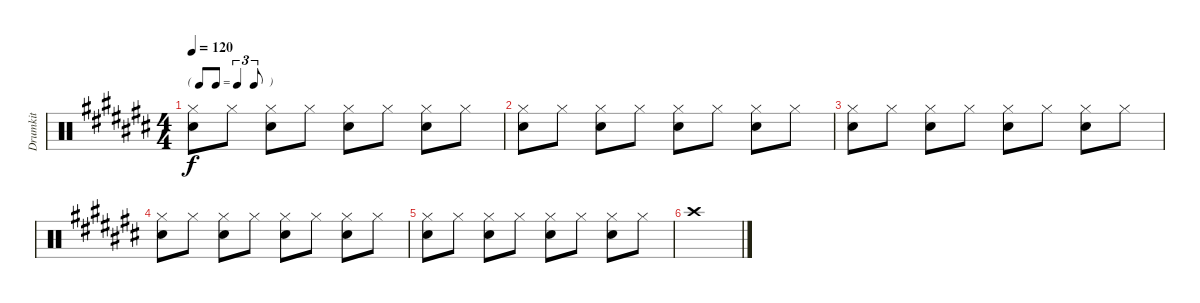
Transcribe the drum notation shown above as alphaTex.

\track ("Drumkit" "Drumkit") {instrument percussion}
\staff {score}
\articulation defaults
\ts (4 4)
\tf triplet8th
\tempo 120
\clef neutral
\ks c#
("Snare (hit) 2" "Hi-Hat (closed)").8{dy f} "Hi-Hat (closed)".8 ("Snare (hit) 2" "Hi-Hat (closed)").8 "Hi-Hat (closed)".8 ("Snare (hit) 2" "Hi-Hat (closed)").8 "Hi-Hat (closed)".8 ("Snare (hit) 2" "Hi-Hat (closed)").8 "Hi-Hat (closed)".8 |
("Snare (hit) 2" "Hi-Hat (closed)").8 "Hi-Hat (closed)".8 ("Snare (hit) 2" "Hi-Hat (closed)").8 "Hi-Hat (closed)".8 ("Snare (hit) 2" "Hi-Hat (closed)").8 "Hi-Hat (closed)".8 ("Snare (hit) 2" "Hi-Hat (closed)").8 "Hi-Hat (closed)".8 |
("Snare (hit) 2" "Hi-Hat (closed)").8 "Hi-Hat (closed)".8 ("Snare (hit) 2" "Hi-Hat (closed)").8 "Hi-Hat (closed)".8 ("Snare (hit) 2" "Hi-Hat (closed)").8 "Hi-Hat (closed)".8 ("Snare (hit) 2" "Hi-Hat (closed)").8 "Hi-Hat (closed)".8 |
("Snare (hit) 2" "Hi-Hat (closed)").8 "Hi-Hat (closed)".8 ("Snare (hit) 2" "Hi-Hat (closed)").8 "Hi-Hat (closed)".8 ("Snare (hit) 2" "Hi-Hat (closed)").8 "Hi-Hat (closed)".8 ("Snare (hit) 2" "Hi-Hat (closed)").8 "Hi-Hat (closed)".8 |
("Snare (hit) 2" "Hi-Hat (closed)").8 "Hi-Hat (closed)".8 ("Snare (hit) 2" "Hi-Hat (closed)").8 "Hi-Hat (closed)".8 ("Snare (hit) 2" "Hi-Hat (closed)").8 "Hi-Hat (closed)".8 ("Snare (hit) 2" "Hi-Hat (closed)").8 "Hi-Hat (closed)".8 |
"Crash high (hit)".1
